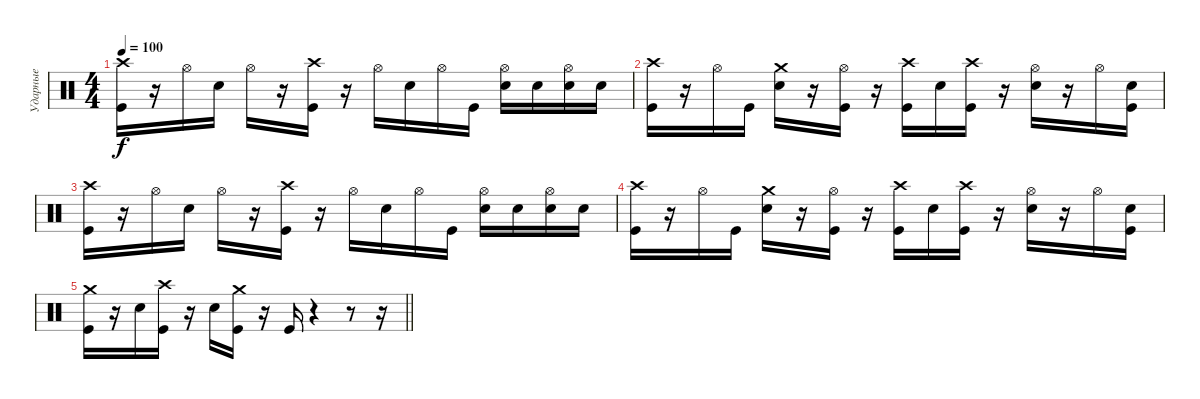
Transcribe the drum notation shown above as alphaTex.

\track ("Ударные" "Ударные") {instrument percussion}
\staff {score}
\articulation defaults
\ts (4 4)
\tempo 100
\clef neutral
\ks c
("Crash high (hit)" "Kick (hit)").16{dy f} r.16 "Hi-Hat (open)".16 "Snare (hit) 2".16 "Hi-Hat (open)".16 r.16 ("Crash high (hit)" "Kick (hit)").16 r.16 "Hi-Hat (open)".16 "Snare (hit) 2".16 "Hi-Hat (open)".16 "Kick (hit)".16 ("Hi-Hat (open)" "Snare (hit) 2").16 "Snare (hit) 2".16 ("Hi-Hat (open)" "Snare (hit) 2").16 "Snare (hit) 2".16 |
("Crash high (hit)" "Kick (hit)").16 r.16 "Hi-Hat (open)".16 "Kick (hit)".16 ("Crash medium (hit)" "Snare (hit) 2").16 r.16 ("Hi-Hat (open)" "Kick (hit)").16 r.16 ("Crash high (hit)" "Kick (hit)").16 "Snare (hit) 2".16 ("Crash high (hit)" "Kick (hit)").16 r.16 ("Hi-Hat (open)" "Snare (hit) 2").16 r.16 "Hi-Hat (open)".16 ("Snare (hit) 2" "Kick (hit)").16 |
("Crash high (hit)" "Kick (hit)").16 r.16 "Hi-Hat (open)".16 "Snare (hit) 2".16 "Hi-Hat (open)".16 r.16 ("Crash high (hit)" "Kick (hit)").16 r.16 "Hi-Hat (open)".16 "Snare (hit) 2".16 "Hi-Hat (open)".16 "Kick (hit)".16 ("Hi-Hat (open)" "Snare (hit) 2").16 "Snare (hit) 2".16 ("Hi-Hat (open)" "Snare (hit) 2").16 "Snare (hit) 2".16 |
("Crash high (hit)" "Kick (hit)").16 r.16 "Hi-Hat (open)".16 "Kick (hit)".16 ("Crash medium (hit)" "Snare (hit) 2").16 r.16 ("Hi-Hat (open)" "Kick (hit)").16 r.16 ("Crash high (hit)" "Kick (hit)").16 "Snare (hit) 2".16 ("Crash high (hit)" "Kick (hit)").16 r.16 ("Hi-Hat (open)" "Snare (hit) 2").16 r.16 "Hi-Hat (open)".16 ("Snare (hit) 2" "Kick (hit)").16 |
\barLineRight lightlight
("Crash medium (hit)" "Kick (hit)").16 r.16 "Snare (hit) 2".16 ("Crash high (hit)" "Kick (hit)").16 r.16 "Snare (hit) 2".16 ("Crash medium (hit)" "Kick (hit)").16 r.16 "Kick (hit)".16 r.4 r.8 r.16
